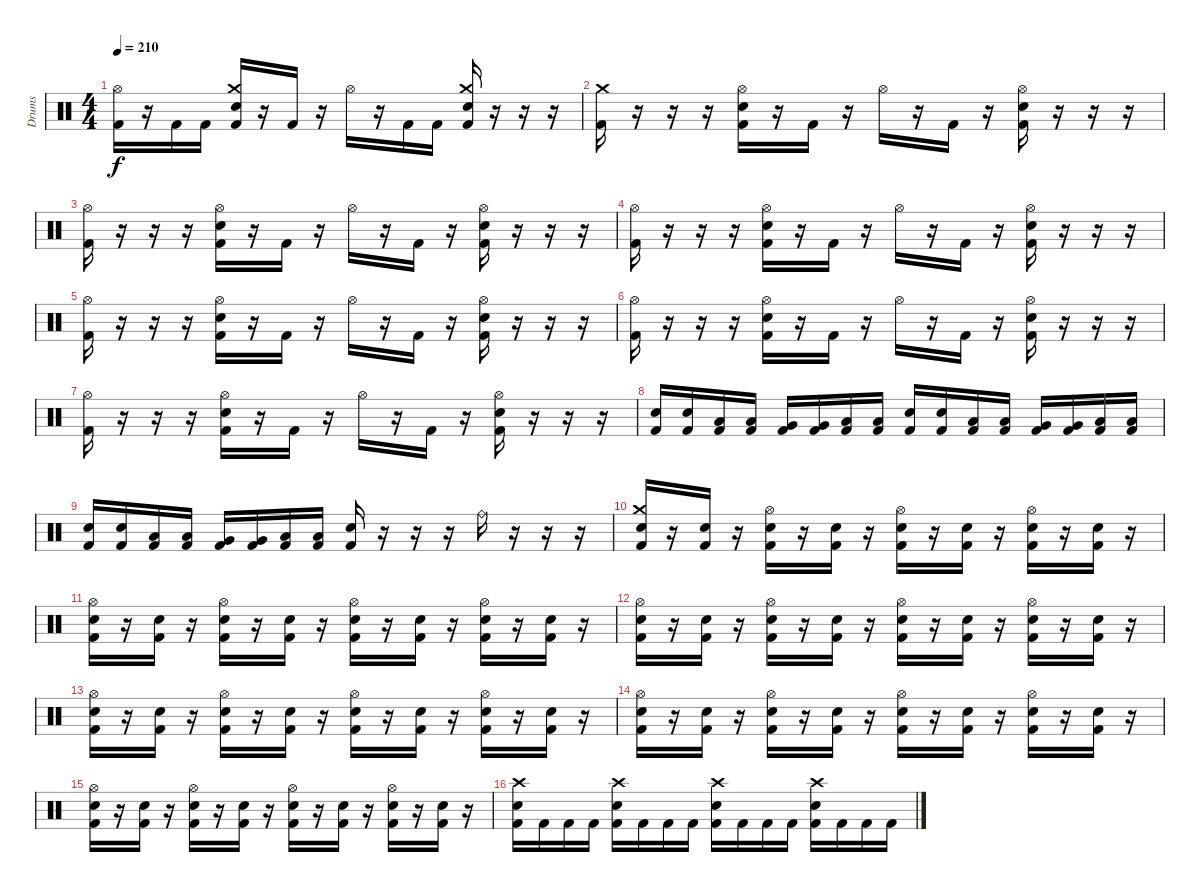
\track ("Drums" "Drums") {instrument percussion}
\staff {score}
\articulation defaults
\ts (4 4)
\tempo 210
\clef neutral
\ks c
("Hi-Hat (open)" "Kick (hit) 2").16{dy f} r.16 "Kick (hit) 2".16 "Kick (hit) 2".16 ("Crash medium (hit)" "Electric Snare (hit)" "Kick (hit) 2").16 r.16 "Kick (hit) 2".16 r.16 "Hi-Hat (open)".16 r.16 "Kick (hit) 2".16 "Kick (hit) 2".16 ("Crash medium (hit)" "Electric Snare (hit)" "Kick (hit) 2").16 r.16 r.16 r.16 |
("Crash medium (hit)" "Kick (hit) 2").16 r.16 r.16 r.16 ("Hi-Hat (open)" "Electric Snare (hit)" "Kick (hit) 2").16 r.16 "Kick (hit) 2".16 r.16 "Hi-Hat (open)".16 r.16 "Kick (hit) 2".16 r.16 ("Hi-Hat (open)" "Electric Snare (hit)" "Kick (hit) 2").16 r.16 r.16 r.16 |
("Hi-Hat (open)" "Kick (hit) 2").16 r.16 r.16 r.16 ("Hi-Hat (open)" "Electric Snare (hit)" "Kick (hit) 2").16 r.16 "Kick (hit) 2".16 r.16 "Hi-Hat (open)".16 r.16 "Kick (hit) 2".16 r.16 ("Hi-Hat (open)" "Electric Snare (hit)" "Kick (hit) 2").16 r.16 r.16 r.16 |
("Hi-Hat (open)" "Kick (hit) 2").16 r.16 r.16 r.16 ("Hi-Hat (open)" "Electric Snare (hit)" "Kick (hit) 2").16 r.16 "Kick (hit) 2".16 r.16 "Hi-Hat (open)".16 r.16 "Kick (hit) 2".16 r.16 ("Hi-Hat (open)" "Electric Snare (hit)" "Kick (hit) 2").16 r.16 r.16 r.16 |
("Hi-Hat (open)" "Kick (hit) 2").16 r.16 r.16 r.16 ("Hi-Hat (open)" "Electric Snare (hit)" "Kick (hit) 2").16 r.16 "Kick (hit) 2".16 r.16 "Hi-Hat (open)".16 r.16 "Kick (hit) 2".16 r.16 ("Hi-Hat (open)" "Electric Snare (hit)" "Kick (hit) 2").16 r.16 r.16 r.16 |
("Hi-Hat (open)" "Kick (hit) 2").16 r.16 r.16 r.16 ("Hi-Hat (open)" "Electric Snare (hit)" "Kick (hit) 2").16 r.16 "Kick (hit) 2".16 r.16 "Hi-Hat (open)".16 r.16 "Kick (hit) 2".16 r.16 ("Hi-Hat (open)" "Electric Snare (hit)" "Kick (hit) 2").16 r.16 r.16 r.16 |
("Hi-Hat (open)" "Kick (hit) 2").16 r.16 r.16 r.16 ("Hi-Hat (open)" "Electric Snare (hit)" "Kick (hit) 2").16 r.16 "Kick (hit) 2".16 r.16 "Hi-Hat (open)".16 r.16 "Kick (hit) 2".16 r.16 ("Hi-Hat (open)" "Electric Snare (hit)" "Kick (hit) 2").16 r.16 r.16 r.16 |
("Electric Snare (hit)" "Kick (hit) 2").16 ("Electric Snare (hit)" "Kick (hit) 2").16 ("Low Tom (hit)" "Kick (hit) 2").16 ("Low Tom (hit)" "Kick (hit) 2").16 ("Very Low Tom (hit)" "Kick (hit) 2").16 ("Very Low Tom (hit)" "Kick (hit) 2").16 ("Low Floor Tom (hit)" "Kick (hit) 2").16 ("Low Floor Tom (hit)" "Kick (hit) 2").16 ("Electric Snare (hit)" "Kick (hit) 2").16 ("Electric Snare (hit)" "Kick (hit) 2").16 ("Low Tom (hit)" "Kick (hit) 2").16 ("Low Tom (hit)" "Kick (hit) 2").16 ("Very Low Tom (hit)" "Kick (hit) 2").16 ("Very Low Tom (hit)" "Kick (hit) 2").16 ("Low Floor Tom (hit)" "Kick (hit) 2").16 ("Low Floor Tom (hit)" "Kick (hit) 2").16 |
("Electric Snare (hit)" "Kick (hit) 2").16 ("Electric Snare (hit)" "Kick (hit) 2").16 ("Low Tom (hit)" "Kick (hit) 2").16 ("Low Tom (hit)" "Kick (hit) 2").16 ("Very Low Tom (hit)" "Kick (hit) 2").16 ("Very Low Tom (hit)" "Kick (hit) 2").16 ("Low Floor Tom (hit)" "Kick (hit) 2").16 ("Low Floor Tom (hit)" "Kick (hit) 2").16 ("Electric Snare (hit)" "Kick (hit) 2").16 r.16 r.16 r.16 "Ride (bell)".16 r.16 r.16 r.16 |
("Crash medium (hit)" "Electric Snare (hit)" "Kick (hit) 2").16 r.16 ("Electric Snare (hit)" "Kick (hit) 2").16 r.16 ("Hi-Hat (open)" "Electric Snare (hit)" "Kick (hit) 2").16 r.16 ("Electric Snare (hit)" "Kick (hit) 2").16 r.16 ("Hi-Hat (open)" "Electric Snare (hit)" "Kick (hit) 2").16 r.16 ("Electric Snare (hit)" "Kick (hit) 2").16 r.16 ("Hi-Hat (open)" "Electric Snare (hit)" "Kick (hit) 2").16 r.16 ("Electric Snare (hit)" "Kick (hit) 2").16 r.16 |
("Hi-Hat (open)" "Electric Snare (hit)" "Kick (hit) 2").16 r.16 ("Electric Snare (hit)" "Kick (hit) 2").16 r.16 ("Hi-Hat (open)" "Electric Snare (hit)" "Kick (hit) 2").16 r.16 ("Electric Snare (hit)" "Kick (hit) 2").16 r.16 ("Hi-Hat (open)" "Electric Snare (hit)" "Kick (hit) 2").16 r.16 ("Electric Snare (hit)" "Kick (hit) 2").16 r.16 ("Hi-Hat (open)" "Electric Snare (hit)" "Kick (hit) 2").16 r.16 ("Electric Snare (hit)" "Kick (hit) 2").16 r.16 |
("Hi-Hat (open)" "Electric Snare (hit)" "Kick (hit) 2").16 r.16 ("Electric Snare (hit)" "Kick (hit) 2").16 r.16 ("Hi-Hat (open)" "Electric Snare (hit)" "Kick (hit) 2").16 r.16 ("Electric Snare (hit)" "Kick (hit) 2").16 r.16 ("Hi-Hat (open)" "Electric Snare (hit)" "Kick (hit) 2").16 r.16 ("Electric Snare (hit)" "Kick (hit) 2").16 r.16 ("Hi-Hat (open)" "Electric Snare (hit)" "Kick (hit) 2").16 r.16 ("Electric Snare (hit)" "Kick (hit) 2").16 r.16 |
("Hi-Hat (open)" "Electric Snare (hit)" "Kick (hit) 2").16 r.16 ("Electric Snare (hit)" "Kick (hit) 2").16 r.16 ("Hi-Hat (open)" "Electric Snare (hit)" "Kick (hit) 2").16 r.16 ("Electric Snare (hit)" "Kick (hit) 2").16 r.16 ("Hi-Hat (open)" "Electric Snare (hit)" "Kick (hit) 2").16 r.16 ("Electric Snare (hit)" "Kick (hit) 2").16 r.16 ("Hi-Hat (open)" "Electric Snare (hit)" "Kick (hit) 2").16 r.16 ("Electric Snare (hit)" "Kick (hit) 2").16 r.16 |
("Hi-Hat (open)" "Electric Snare (hit)" "Kick (hit) 2").16 r.16 ("Electric Snare (hit)" "Kick (hit) 2").16 r.16 ("Hi-Hat (open)" "Electric Snare (hit)" "Kick (hit) 2").16 r.16 ("Electric Snare (hit)" "Kick (hit) 2").16 r.16 ("Hi-Hat (open)" "Electric Snare (hit)" "Kick (hit) 2").16 r.16 ("Electric Snare (hit)" "Kick (hit) 2").16 r.16 ("Hi-Hat (open)" "Electric Snare (hit)" "Kick (hit) 2").16 r.16 ("Electric Snare (hit)" "Kick (hit) 2").16 r.16 |
("Hi-Hat (open)" "Electric Snare (hit)" "Kick (hit) 2").16 r.16 ("Electric Snare (hit)" "Kick (hit) 2").16 r.16 ("Hi-Hat (open)" "Electric Snare (hit)" "Kick (hit) 2").16 r.16 ("Electric Snare (hit)" "Kick (hit) 2").16 r.16 ("Hi-Hat (open)" "Electric Snare (hit)" "Kick (hit) 2").16 r.16 ("Electric Snare (hit)" "Kick (hit) 2").16 r.16 ("Hi-Hat (open)" "Electric Snare (hit)" "Kick (hit) 2").16 r.16 ("Electric Snare (hit)" "Kick (hit) 2").16 r.16 |
("Crash high (hit)" "Electric Snare (hit)" "Kick (hit) 2").16 "Kick (hit) 2".16 "Kick (hit) 2".16 "Kick (hit) 2".16 ("Crash high (hit)" "Electric Snare (hit)" "Kick (hit) 2").16 "Kick (hit) 2".16 "Kick (hit) 2".16 "Kick (hit) 2".16 ("Crash high (hit)" "Electric Snare (hit)" "Kick (hit) 2").16 "Kick (hit) 2".16 "Kick (hit) 2".16 "Kick (hit) 2".16 ("Crash high (hit)" "Electric Snare (hit)" "Kick (hit) 2").16 "Kick (hit) 2".16 "Kick (hit) 2".16 "Kick (hit) 2".16
